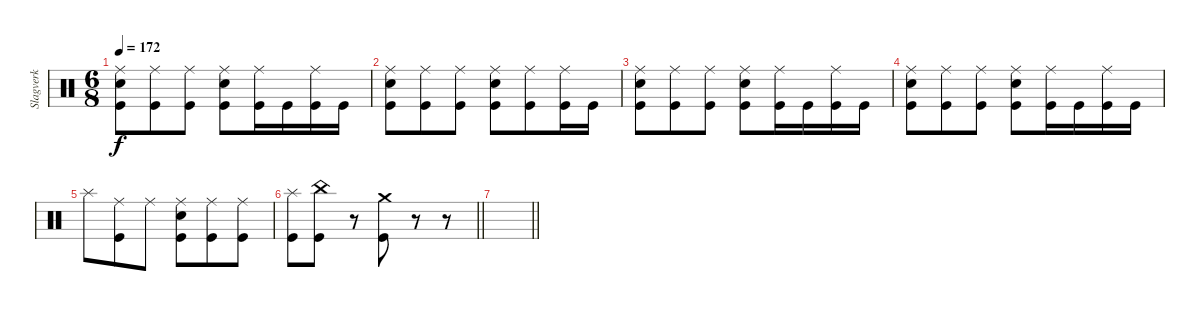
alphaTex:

\track ("Slagverk" "Slagverk") {instrument percussion}
\staff {score}
\articulation defaults
\ts (6 8)
\tempo 172
\clef neutral
\ks c
("Ride (middle)" "Snare (hit) 2" "Kick (hit)").8{dy f} ("Ride (middle)" "Kick (hit)").8 ("Ride (middle)" "Kick (hit)").8 ("Ride (middle)" "Snare (hit) 2" "Kick (hit)").8 ("Ride (middle)" "Kick (hit)").16 "Kick (hit)".16 ("Ride (middle)" "Kick (hit)").16 "Kick (hit)".16 |
("Ride (middle)" "Snare (hit) 2" "Kick (hit)").8 ("Ride (middle)" "Kick (hit)").8 ("Ride (middle)" "Kick (hit)").8 ("Ride (middle)" "Snare (hit) 2" "Kick (hit)").8 ("Ride (middle)" "Kick (hit)").8 ("Ride (middle)" "Kick (hit)").16 "Kick (hit)".16 |
("Ride (middle)" "Snare (hit) 2" "Kick (hit)").8 ("Ride (middle)" "Kick (hit)").8 ("Ride (middle)" "Kick (hit)").8 ("Ride (middle)" "Snare (hit) 2" "Kick (hit)").8 ("Ride (middle)" "Kick (hit)").16 "Kick (hit)".16 ("Ride (middle)" "Kick (hit)").16 "Kick (hit)".16 |
("Ride (middle)" "Snare (hit) 2" "Kick (hit)").8 ("Ride (middle)" "Kick (hit)").8 ("Ride (middle)" "Kick (hit)").8 ("Ride (middle)" "Snare (hit) 2" "Kick (hit)").8 ("Ride (middle)" "Kick (hit)").16 "Kick (hit)".16 ("Ride (middle)" "Kick (hit)").16 "Kick (hit)".16 |
"Splash (hit)".8 ("Ride (middle)" "Kick (hit)").8 "Ride (middle)".8 ("Ride (middle)" "Snare (hit) 2" "Kick (hit)").8 ("Ride (middle)" "Kick (hit)").8 ("Ride (middle)" "Kick (hit)").8 |
\barLineRight lightlight
("Splash (hit)" "Kick (hit)").8 ("China (hit)" "Kick (hit)").8 r.8 ("Crash medium (hit)" "Kick (hit)").8 r.8 r.8 |
\barLineRight lightlight
